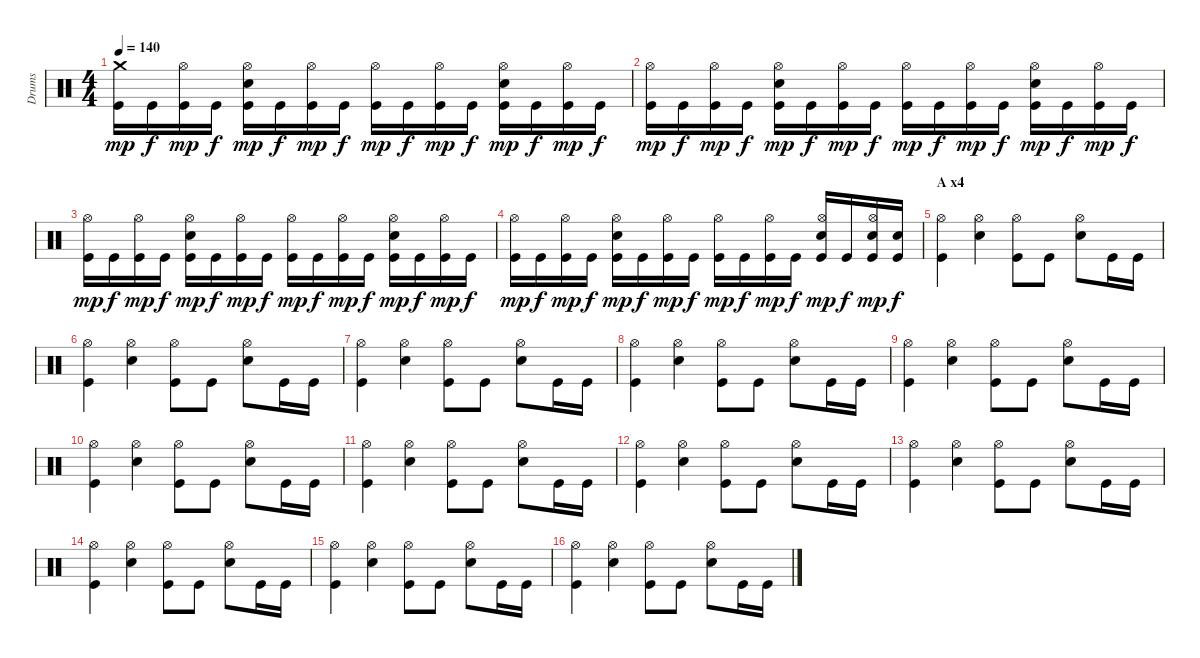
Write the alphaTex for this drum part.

\track ("Drums" "Drums") {instrument percussion}
\staff {score}
\articulation defaults
\ts (4 4)
\tempo 140
\clef neutral
\ks c
("Crash medium (hit)" "Kick (hit)").16{dy mp} "Kick (hit)".16{dy f} ("Hi-Hat (open)" "Kick (hit)").16{dy mp} "Kick (hit)".16{dy f} ("Hi-Hat (open)" "Snare (hit) 2" "Kick (hit)").16{dy mp} "Kick (hit)".16{dy f} ("Hi-Hat (open)" "Kick (hit)").16{dy mp} "Kick (hit)".16{dy f} ("Hi-Hat (open)" "Kick (hit)").16{dy mp} "Kick (hit)".16{dy f} ("Hi-Hat (open)" "Kick (hit)").16{dy mp} "Kick (hit)".16{dy f} ("Hi-Hat (open)" "Snare (hit) 2" "Kick (hit)").16{dy mp} "Kick (hit)".16{dy f} ("Hi-Hat (open)" "Kick (hit)").16{dy mp} "Kick (hit)".16{dy f} |
("Hi-Hat (open)" "Kick (hit)").16{dy mp} "Kick (hit)".16{dy f} ("Hi-Hat (open)" "Kick (hit)").16{dy mp} "Kick (hit)".16{dy f} ("Hi-Hat (open)" "Snare (hit) 2" "Kick (hit)").16{dy mp} "Kick (hit)".16{dy f} ("Hi-Hat (open)" "Kick (hit)").16{dy mp} "Kick (hit)".16{dy f} ("Hi-Hat (open)" "Kick (hit)").16{dy mp} "Kick (hit)".16{dy f} ("Hi-Hat (open)" "Kick (hit)").16{dy mp} "Kick (hit)".16{dy f} ("Hi-Hat (open)" "Snare (hit) 2" "Kick (hit)").16{dy mp} "Kick (hit)".16{dy f} ("Hi-Hat (open)" "Kick (hit)").16{dy mp} "Kick (hit)".16{dy f} |
("Hi-Hat (open)" "Kick (hit)").16{dy mp} "Kick (hit)".16{dy f} ("Hi-Hat (open)" "Kick (hit)").16{dy mp} "Kick (hit)".16{dy f} ("Hi-Hat (open)" "Snare (hit) 2" "Kick (hit)").16{dy mp} "Kick (hit)".16{dy f} ("Hi-Hat (open)" "Kick (hit)").16{dy mp} "Kick (hit)".16{dy f} ("Hi-Hat (open)" "Kick (hit)").16{dy mp} "Kick (hit)".16{dy f} ("Hi-Hat (open)" "Kick (hit)").16{dy mp} "Kick (hit)".16{dy f} ("Hi-Hat (open)" "Snare (hit) 2" "Kick (hit)").16{dy mp} "Kick (hit)".16{dy f} ("Hi-Hat (open)" "Kick (hit)").16{dy mp} "Kick (hit)".16{dy f} |
("Hi-Hat (open)" "Kick (hit)").16{dy mp} "Kick (hit)".16{dy f} ("Hi-Hat (open)" "Kick (hit)").16{dy mp} "Kick (hit)".16{dy f} ("Hi-Hat (open)" "Snare (hit) 2" "Kick (hit)").16{dy mp} "Kick (hit)".16{dy f} ("Hi-Hat (open)" "Kick (hit)").16{dy mp} "Kick (hit)".16{dy f} ("Hi-Hat (open)" "Kick (hit)").16{dy mp} "Kick (hit)".16{dy f} ("Hi-Hat (open)" "Kick (hit)").16{dy mp} "Kick (hit)".16{dy f} ("Hi-Hat (open)" "Snare (hit) 2" "Kick (hit)").16{dy mp} "Kick (hit)".16{dy f} ("Hi-Hat (open)" "Snare (hit) 2" "Kick (hit)").16{dy mp} ("Snare (hit) 2" "Kick (hit)").16{dy f} |
\section ("" "A x4")
("Hi-Hat (open)" "Kick (hit)").4 ("Hi-Hat (open)" "Snare (hit) 2").4 ("Hi-Hat (open)" "Kick (hit)").8 "Kick (hit)".8 ("Hi-Hat (open)" "Snare (hit) 2").8 "Kick (hit)".16 "Kick (hit)".16 |
("Hi-Hat (open)" "Kick (hit)").4 ("Hi-Hat (open)" "Snare (hit) 2").4 ("Hi-Hat (open)" "Kick (hit)").8 "Kick (hit)".8 ("Hi-Hat (open)" "Snare (hit) 2").8 "Kick (hit)".16 "Kick (hit)".16 |
("Hi-Hat (open)" "Kick (hit)").4 ("Hi-Hat (open)" "Snare (hit) 2").4 ("Hi-Hat (open)" "Kick (hit)").8 "Kick (hit)".8 ("Hi-Hat (open)" "Snare (hit) 2").8 "Kick (hit)".16 "Kick (hit)".16 |
("Hi-Hat (open)" "Kick (hit)").4 ("Hi-Hat (open)" "Snare (hit) 2").4 ("Hi-Hat (open)" "Kick (hit)").8 "Kick (hit)".8 ("Hi-Hat (open)" "Snare (hit) 2").8 "Kick (hit)".16 "Kick (hit)".16 |
("Hi-Hat (open)" "Kick (hit)").4 ("Hi-Hat (open)" "Snare (hit) 2").4 ("Hi-Hat (open)" "Kick (hit)").8 "Kick (hit)".8 ("Hi-Hat (open)" "Snare (hit) 2").8 "Kick (hit)".16 "Kick (hit)".16 |
("Hi-Hat (open)" "Kick (hit)").4 ("Hi-Hat (open)" "Snare (hit) 2").4 ("Hi-Hat (open)" "Kick (hit)").8 "Kick (hit)".8 ("Hi-Hat (open)" "Snare (hit) 2").8 "Kick (hit)".16 "Kick (hit)".16 |
("Hi-Hat (open)" "Kick (hit)").4 ("Hi-Hat (open)" "Snare (hit) 2").4 ("Hi-Hat (open)" "Kick (hit)").8 "Kick (hit)".8 ("Hi-Hat (open)" "Snare (hit) 2").8 "Kick (hit)".16 "Kick (hit)".16 |
("Hi-Hat (open)" "Kick (hit)").4 ("Hi-Hat (open)" "Snare (hit) 2").4 ("Hi-Hat (open)" "Kick (hit)").8 "Kick (hit)".8 ("Hi-Hat (open)" "Snare (hit) 2").8 "Kick (hit)".16 "Kick (hit)".16 |
("Hi-Hat (open)" "Kick (hit)").4 ("Hi-Hat (open)" "Snare (hit) 2").4 ("Hi-Hat (open)" "Kick (hit)").8 "Kick (hit)".8 ("Hi-Hat (open)" "Snare (hit) 2").8 "Kick (hit)".16 "Kick (hit)".16 |
("Hi-Hat (open)" "Kick (hit)").4 ("Hi-Hat (open)" "Snare (hit) 2").4 ("Hi-Hat (open)" "Kick (hit)").8 "Kick (hit)".8 ("Hi-Hat (open)" "Snare (hit) 2").8 "Kick (hit)".16 "Kick (hit)".16 |
("Hi-Hat (open)" "Kick (hit)").4 ("Hi-Hat (open)" "Snare (hit) 2").4 ("Hi-Hat (open)" "Kick (hit)").8 "Kick (hit)".8 ("Hi-Hat (open)" "Snare (hit) 2").8 "Kick (hit)".16 "Kick (hit)".16 |
("Hi-Hat (open)" "Kick (hit)").4 ("Hi-Hat (open)" "Snare (hit) 2").4 ("Hi-Hat (open)" "Kick (hit)").8 "Kick (hit)".8 ("Hi-Hat (open)" "Snare (hit) 2").8 "Kick (hit)".16 "Kick (hit)".16
